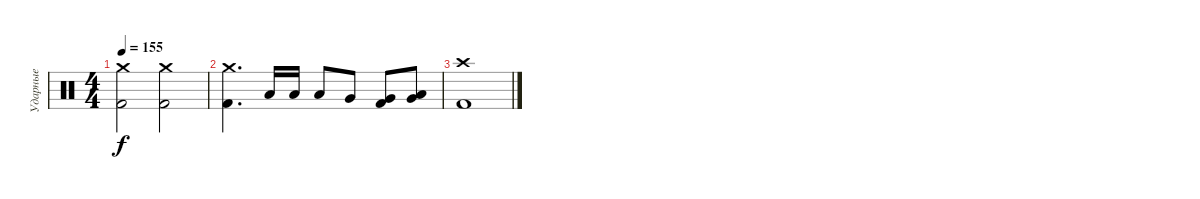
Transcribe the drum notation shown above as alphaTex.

\track ("Ударные" "Ударные") {instrument percussion}
\staff {score}
\articulation defaults
\ts (4 4)
\tempo 155
\clef neutral
\ks c
("Crash medium (hit)" "Kick (hit) 2").2{dy f} ("Crash medium (hit)" "Kick (hit) 2").2 |
("Crash medium (hit)" "Kick (hit) 2").4{d} "Low Tom (hit)".16 "Low Tom (hit)".16 "Low Tom (hit)".8 "Very Low Tom (hit)".8 ("Very Low Tom (hit)" "Kick (hit) 2").8 ("Low Tom (hit)" "Very Low Tom (hit)").8 |
("Crash high (hit)" "Kick (hit) 2").1
